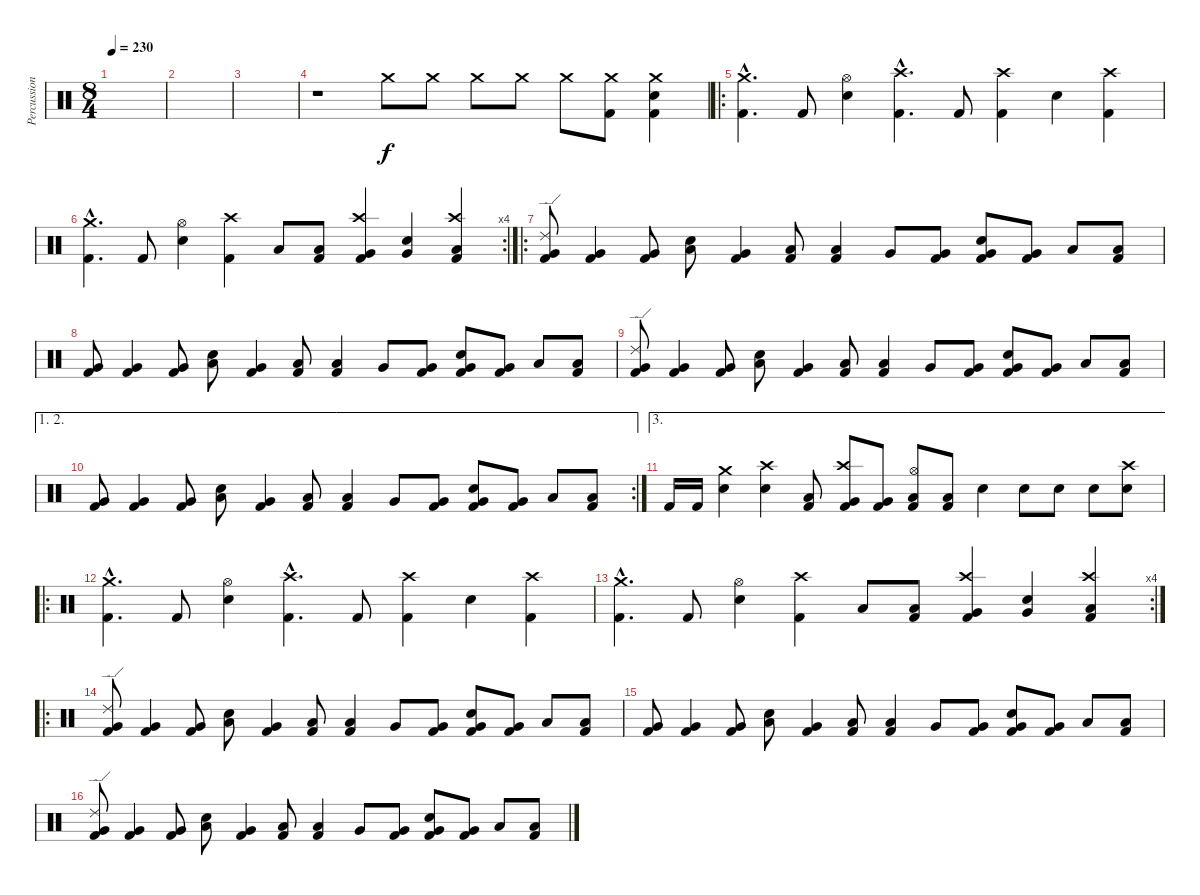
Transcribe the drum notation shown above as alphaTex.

\track ("Percussions" "Percussion") {instrument percussion}
\staff {score}
\articulation defaults
\ts (8 4)
\tempo 230
\clef neutral
\ks c
|
|
|
r.1 "Crash medium (hit)".8{volume 5} "Crash medium (hit)".8{volume 6} "Crash medium (hit)".8{volume 7} "Crash medium (hit)".8{volume 8} "Crash medium (hit)".8{volume 10} ("Crash medium (hit)" "Kick (hit) 2").8 ("Crash medium (hit)" "Kick (hit) 2" "Electric Snare (hit)").4{volume 16} |
\ro
("Crash medium (hit)"{hac} "Kick (hit) 2"{hac}).4{d} "Kick (hit) 2".8 ("Hi-Hat (open)" "Electric Snare (hit)").4 ("Crash high (hit)"{hac} "Kick (hit) 2"{hac}).4{d} "Kick (hit) 2".8 ("Crash high (hit)" "Kick (hit) 2").4 "Electric Snare (hit)".4 ("Crash high (hit)" "Kick (hit) 2").4 |
\rc 4
("Crash medium (hit)"{hac} "Kick (hit) 2"{hac}).4{d} "Kick (hit) 2".8 ("Hi-Hat (open)" "Electric Snare (hit)").4 ("Crash high (hit)" "Kick (hit) 2").4 "Low Tom (hit)".8 ("Low Tom (hit)" "Kick (hit) 2").8 ("Crash high (hit)" "Very Low Tom (hit)" "Kick (hit) 2").4 ("Very Low Tom (hit)" "Electric Snare (hit)").4 ("Crash high (hit)" "Low Floor Tom (hit)" "Kick (hit) 2").4 |
\ro
("Ride (edge) 2" "Kick (hit) 2" "Very Low Tom (hit)").8 ("Kick (hit) 2" "Very Low Tom (hit)").4 ("Kick (hit) 2" "Very Low Tom (hit)").8 ("Electric Snare (hit)" "Low Tom (hit)").8 ("Kick (hit) 2" "Very Low Tom (hit)").4 ("Kick (hit) 2" "Low Floor Tom (hit)").8 ("Kick (hit) 2" "Low Floor Tom (hit)").4 "Very Low Tom (hit)".8 ("Kick (hit) 2" "Very Low Tom (hit)").8 ("Electric Snare (hit)" "Kick (hit) 2" "Very Low Tom (hit)").8 ("Kick (hit) 2" "Very Low Tom (hit)").8 "Low Tom (hit)".8 ("Kick (hit) 2" "Low Floor Tom (hit)").8 |
("Kick (hit) 2" "Very Low Tom (hit)").8 ("Kick (hit) 2" "Very Low Tom (hit)").4 ("Kick (hit) 2" "Very Low Tom (hit)").8 ("Electric Snare (hit)" "Low Tom (hit)").8 ("Kick (hit) 2" "Very Low Tom (hit)").4 ("Kick (hit) 2" "Low Floor Tom (hit)").8 ("Kick (hit) 2" "Low Floor Tom (hit)").4 "Very Low Tom (hit)".8 ("Kick (hit) 2" "Very Low Tom (hit)").8 ("Electric Snare (hit)" "Kick (hit) 2" "Very Low Tom (hit)").8 ("Kick (hit) 2" "Very Low Tom (hit)").8 "Low Tom (hit)".8 ("Kick (hit) 2" "Low Floor Tom (hit)").8 |
("Ride (edge) 2" "Kick (hit) 2" "Very Low Tom (hit)").8 ("Kick (hit) 2" "Very Low Tom (hit)").4 ("Kick (hit) 2" "Very Low Tom (hit)").8 ("Electric Snare (hit)" "Low Tom (hit)").8 ("Kick (hit) 2" "Very Low Tom (hit)").4 ("Kick (hit) 2" "Low Floor Tom (hit)").8 ("Kick (hit) 2" "Low Floor Tom (hit)").4 "Very Low Tom (hit)".8 ("Kick (hit) 2" "Very Low Tom (hit)").8 ("Electric Snare (hit)" "Kick (hit) 2" "Very Low Tom (hit)").8 ("Kick (hit) 2" "Very Low Tom (hit)").8 "Low Tom (hit)".8 ("Kick (hit) 2" "Low Floor Tom (hit)").8 |
\ae (1 2)
\rc 2
("Kick (hit) 2" "Very Low Tom (hit)").8 ("Kick (hit) 2" "Very Low Tom (hit)").4 ("Kick (hit) 2" "Very Low Tom (hit)").8 ("Electric Snare (hit)" "Low Tom (hit)").8 ("Kick (hit) 2" "Very Low Tom (hit)").4 ("Kick (hit) 2" "Low Floor Tom (hit)").8 ("Kick (hit) 2" "Low Floor Tom (hit)").4 "Very Low Tom (hit)".8 ("Kick (hit) 2" "Very Low Tom (hit)").8 ("Electric Snare (hit)" "Kick (hit) 2" "Very Low Tom (hit)").8 ("Kick (hit) 2" "Very Low Tom (hit)").8 "Low Tom (hit)".8 ("Kick (hit) 2" "Low Floor Tom (hit)").8 |
\ae 3 "Kick (hit) 2".16 "Kick (hit) 2".16
("Crash medium (hit)" "Electric Snare (hit)").4 ("Crash high (hit)" "Electric Snare (hit)").4 ("Low Tom (hit)" "Kick (hit) 2").8 ("Crash high (hit)" "Very Low Tom (hit)" "Kick (hit) 2").8 ("Very Low Tom (hit)" "Kick (hit) 2").8 ("Hi-Hat (open)" "Low Floor Tom (hit)" "Kick (hit) 2").8 ("Low Floor Tom (hit)" "Kick (hit) 2").8 "Electric Snare (hit)".4 "Electric Snare (hit)".8 "Electric Snare (hit)".8 "Electric Snare (hit)".8 ("Crash high (hit)" "Electric Snare (hit)").8 |
\ro
("Crash medium (hit)"{hac} "Kick (hit) 2"{hac}).4{d} "Kick (hit) 2".8 ("Hi-Hat (open)" "Electric Snare (hit)").4 ("Crash high (hit)"{hac} "Kick (hit) 2"{hac}).4{d} "Kick (hit) 2".8 ("Crash high (hit)" "Kick (hit) 2").4 "Electric Snare (hit)".4 ("Crash high (hit)" "Kick (hit) 2").4 |
\rc 4
("Crash medium (hit)"{hac} "Kick (hit) 2"{hac}).4{d} "Kick (hit) 2".8 ("Hi-Hat (open)" "Electric Snare (hit)").4 ("Crash high (hit)" "Kick (hit) 2").4 "Low Tom (hit)".8 ("Low Tom (hit)" "Kick (hit) 2").8 ("Crash high (hit)" "Very Low Tom (hit)" "Kick (hit) 2").4 ("Very Low Tom (hit)" "Electric Snare (hit)").4 ("Crash high (hit)" "Low Floor Tom (hit)" "Kick (hit) 2").4 |
\ro
("Ride (edge) 2" "Kick (hit) 2" "Very Low Tom (hit)").8 ("Kick (hit) 2" "Very Low Tom (hit)").4 ("Kick (hit) 2" "Very Low Tom (hit)").8 ("Electric Snare (hit)" "Low Tom (hit)").8 ("Kick (hit) 2" "Very Low Tom (hit)").4 ("Kick (hit) 2" "Low Floor Tom (hit)").8 ("Kick (hit) 2" "Low Floor Tom (hit)").4 "Very Low Tom (hit)".8 ("Kick (hit) 2" "Very Low Tom (hit)").8 ("Electric Snare (hit)" "Kick (hit) 2" "Very Low Tom (hit)").8 ("Kick (hit) 2" "Very Low Tom (hit)").8 "Low Tom (hit)".8 ("Kick (hit) 2" "Low Floor Tom (hit)").8 |
("Kick (hit) 2" "Very Low Tom (hit)").8 ("Kick (hit) 2" "Very Low Tom (hit)").4 ("Kick (hit) 2" "Very Low Tom (hit)").8 ("Electric Snare (hit)" "Low Tom (hit)").8 ("Kick (hit) 2" "Very Low Tom (hit)").4 ("Kick (hit) 2" "Low Floor Tom (hit)").8 ("Kick (hit) 2" "Low Floor Tom (hit)").4 "Very Low Tom (hit)".8 ("Kick (hit) 2" "Very Low Tom (hit)").8 ("Electric Snare (hit)" "Kick (hit) 2" "Very Low Tom (hit)").8 ("Kick (hit) 2" "Very Low Tom (hit)").8 "Low Tom (hit)".8 ("Kick (hit) 2" "Low Floor Tom (hit)").8 |
("Ride (edge) 2" "Kick (hit) 2" "Very Low Tom (hit)").8 ("Kick (hit) 2" "Very Low Tom (hit)").4 ("Kick (hit) 2" "Very Low Tom (hit)").8 ("Electric Snare (hit)" "Low Tom (hit)").8 ("Kick (hit) 2" "Very Low Tom (hit)").4 ("Kick (hit) 2" "Low Floor Tom (hit)").8 ("Kick (hit) 2" "Low Floor Tom (hit)").4 "Very Low Tom (hit)".8 ("Kick (hit) 2" "Very Low Tom (hit)").8 ("Electric Snare (hit)" "Kick (hit) 2" "Very Low Tom (hit)").8 ("Kick (hit) 2" "Very Low Tom (hit)").8 "Low Tom (hit)".8 ("Kick (hit) 2" "Low Floor Tom (hit)").8
